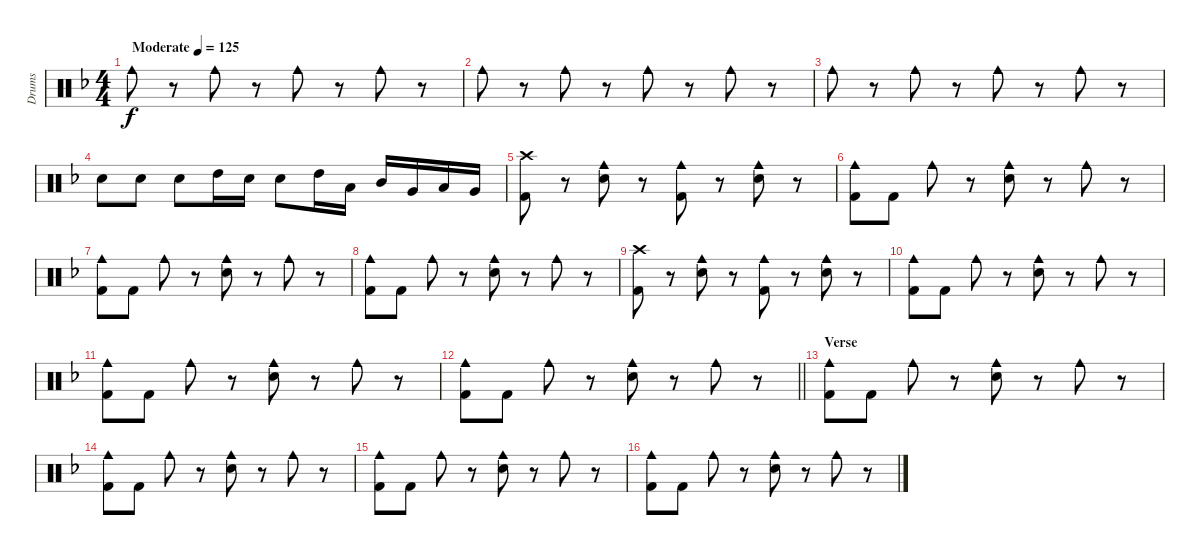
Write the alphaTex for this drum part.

\track ("Drums" "Drums") {instrument percussion}
\staff {score}
\articulation defaults
\ts (4 4)
\tempo (125 "Moderate")
\clef neutral
\ks f "Cowbell medium (hit)".8{dy f}
r.8 "Cowbell medium (hit)".8 r.8 "Cowbell medium (hit)".8 r.8 "Cowbell medium (hit)".8 r.8 |
"Cowbell medium (hit)".8 r.8 "Cowbell medium (hit)".8 r.8 "Cowbell medium (hit)".8 r.8 "Cowbell medium (hit)".8 r.8 |
"Cowbell medium (hit)".8 r.8 "Cowbell medium (hit)".8 r.8 "Cowbell medium (hit)".8 r.8 "Cowbell medium (hit)".8 r.8 |
"Electric Snare (hit)".8 "Electric Snare (hit)".8 "Electric Snare (hit)".8 "High Tom (hit)".16 "Electric Snare (hit)".16 "Electric Snare (hit)".8 "High Tom (hit)".16 "Low Tom (hit)".16 "Mid Tom (hit)".16 "Very Low Tom (hit)".16 "Low Tom (hit)".16 "Very Low Tom (hit)".16 |
("Crash high (hit)" "Kick (hit) 2").8 r.8 ("Cowbell medium (hit)" "Electric Snare (hit)").8 r.8 ("Cowbell medium (hit)" "Kick (hit) 2").8 r.8 ("Cowbell medium (hit)" "Electric Snare (hit)").8 r.8 |
("Cowbell medium (hit)" "Kick (hit) 2").8 "Kick (hit) 2".8 "Cowbell medium (hit)".8 r.8 ("Cowbell medium (hit)" "Electric Snare (hit)").8 r.8 "Cowbell medium (hit)".8 r.8 |
("Cowbell medium (hit)" "Kick (hit) 2").8 "Kick (hit) 2".8 "Cowbell medium (hit)".8 r.8 ("Cowbell medium (hit)" "Electric Snare (hit)").8 r.8 "Cowbell medium (hit)".8 r.8 |
("Cowbell medium (hit)" "Kick (hit) 2").8 "Kick (hit) 2".8 "Cowbell medium (hit)".8 r.8 ("Cowbell medium (hit)" "Electric Snare (hit)").8 r.8 "Cowbell medium (hit)".8 r.8 |
("Crash high (hit)" "Kick (hit) 2").8 r.8 ("Cowbell medium (hit)" "Electric Snare (hit)").8 r.8 ("Cowbell medium (hit)" "Kick (hit) 2").8 r.8 ("Cowbell medium (hit)" "Electric Snare (hit)").8 r.8 |
("Cowbell medium (hit)" "Kick (hit) 2").8 "Kick (hit) 2".8 "Cowbell medium (hit)".8 r.8 ("Cowbell medium (hit)" "Electric Snare (hit)").8 r.8 "Cowbell medium (hit)".8 r.8 |
("Cowbell medium (hit)" "Kick (hit) 2").8 "Kick (hit) 2".8 "Cowbell medium (hit)".8 r.8 ("Cowbell medium (hit)" "Electric Snare (hit)").8 r.8 "Cowbell medium (hit)".8 r.8 |
\barLineRight lightlight
("Cowbell medium (hit)" "Kick (hit) 2").8 "Kick (hit) 2".8 "Cowbell medium (hit)".8 r.8 ("Cowbell medium (hit)" "Electric Snare (hit)").8 r.8 "Cowbell medium (hit)".8 r.8 |
\section ("" "Verse")
("Cowbell medium (hit)" "Kick (hit) 2").8 "Kick (hit) 2".8 "Cowbell medium (hit)".8 r.8 ("Cowbell medium (hit)" "Electric Snare (hit)").8 r.8 "Cowbell medium (hit)".8 r.8 |
("Cowbell medium (hit)" "Kick (hit) 2").8 "Kick (hit) 2".8 "Cowbell medium (hit)".8 r.8 ("Cowbell medium (hit)" "Electric Snare (hit)").8 r.8 "Cowbell medium (hit)".8 r.8 |
("Cowbell medium (hit)" "Kick (hit) 2").8 "Kick (hit) 2".8 "Cowbell medium (hit)".8 r.8 ("Cowbell medium (hit)" "Electric Snare (hit)").8 r.8 "Cowbell medium (hit)".8 r.8 |
("Cowbell medium (hit)" "Kick (hit) 2").8 "Kick (hit) 2".8 "Cowbell medium (hit)".8 r.8 ("Cowbell medium (hit)" "Electric Snare (hit)").8 r.8 "Cowbell medium (hit)".8 r.8
